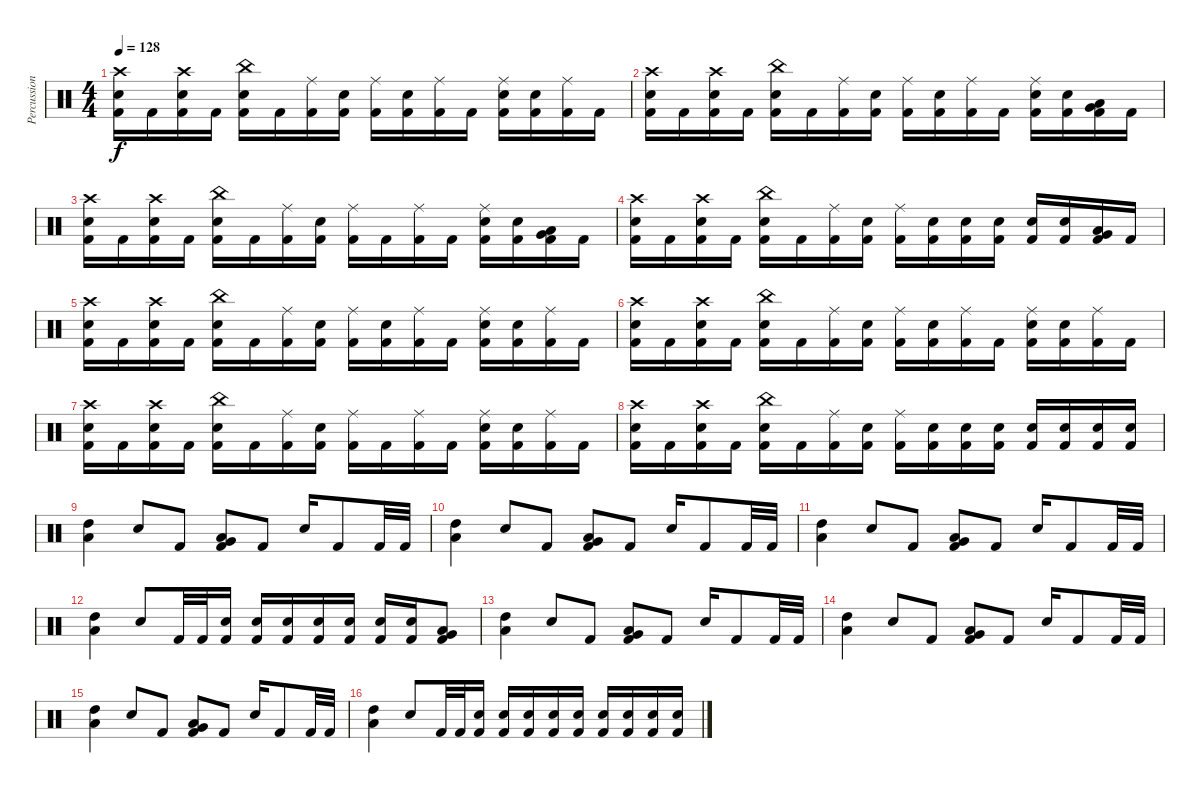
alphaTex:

\track ("Percussion" "Percussion") {instrument percussion}
\staff {score}
\articulation defaults
\ts (4 4)
\tempo 128
\clef neutral
\ks c
("Crash high (hit)" "Snare (hit) 2" "Kick (hit) 2").16{dy f} "Kick (hit) 2".16 ("Crash high (hit)" "Snare (hit) 2" "Kick (hit) 2").16 "Kick (hit) 2".16 ("China (hit)" "Snare (hit) 2" "Kick (hit) 2").16 "Kick (hit) 2".16 ("Ride (middle)" "Kick (hit) 2").16 ("Snare (hit) 2" "Kick (hit) 2").16 ("Ride (middle)" "Kick (hit) 2").16 ("Snare (hit) 2" "Kick (hit) 2").16 ("Ride (middle)" "Kick (hit) 2").16 "Kick (hit) 2".16 ("Ride (middle)" "Snare (hit) 2" "Kick (hit) 2").16 ("Snare (hit) 2" "Kick (hit) 2").16 ("Ride (middle)" "Kick (hit) 2").16 "Kick (hit) 2".16 |
("Crash high (hit)" "Snare (hit) 2" "Kick (hit) 2").16 "Kick (hit) 2".16 ("Crash high (hit)" "Snare (hit) 2" "Kick (hit) 2").16 "Kick (hit) 2".16 ("China (hit)" "Snare (hit) 2" "Kick (hit) 2").16 "Kick (hit) 2".16 ("Ride (middle)" "Kick (hit) 2").16 ("Snare (hit) 2" "Kick (hit) 2").16 ("Ride (middle)" "Kick (hit) 2").16 ("Snare (hit) 2" "Kick (hit) 2").16 ("Ride (middle)" "Kick (hit) 2").16 "Kick (hit) 2".16 ("Ride (middle)" "Snare (hit) 2" "Kick (hit) 2").16 ("Snare (hit) 2" "Kick (hit) 2").16 ("Very Low Tom (hit)" "Low Tom (hit)" "Kick (hit) 2").16 "Kick (hit) 2".16 |
("Crash high (hit)" "Snare (hit) 2" "Kick (hit) 2").16 "Kick (hit) 2".16 ("Crash high (hit)" "Snare (hit) 2" "Kick (hit) 2").16 "Kick (hit) 2".16 ("China (hit)" "Snare (hit) 2" "Kick (hit) 2").16 "Kick (hit) 2".16 ("Ride (middle)" "Kick (hit) 2").16 ("Snare (hit) 2" "Kick (hit) 2").16 ("Ride (middle)" "Kick (hit) 2").16 "Kick (hit) 2".16 ("Ride (middle)" "Kick (hit) 2").16 "Kick (hit) 2".16 ("Ride (middle)" "Snare (hit) 2" "Kick (hit) 2").16 ("Snare (hit) 2" "Kick (hit) 2").16 ("Very Low Tom (hit)" "Low Tom (hit)" "Kick (hit) 2").16 "Kick (hit) 2".16 |
("Crash high (hit)" "Snare (hit) 2" "Kick (hit) 2").16 "Kick (hit) 2".16 ("Crash high (hit)" "Snare (hit) 2" "Kick (hit) 2").16 "Kick (hit) 2".16 ("China (hit)" "Snare (hit) 2" "Kick (hit) 2").16 "Kick (hit) 2".16 ("Ride (middle)" "Kick (hit) 2").16 ("Snare (hit) 2" "Kick (hit) 2").16 ("Ride (middle)" "Kick (hit) 2").16 ("Snare (hit) 2" "Kick (hit) 2").16 ("Snare (hit) 2" "Kick (hit) 2").16 ("Snare (hit) 2" "Kick (hit) 2").16 ("Snare (hit) 2" "Kick (hit) 2").16 ("Snare (hit) 2" "Kick (hit) 2").16 ("Very Low Tom (hit)" "Low Tom (hit)" "Kick (hit) 2").16 "Kick (hit) 2".16 |
("Crash high (hit)" "Snare (hit) 2" "Kick (hit) 2").16 "Kick (hit) 2".16 ("Crash high (hit)" "Snare (hit) 2" "Kick (hit) 2").16 "Kick (hit) 2".16 ("China (hit)" "Snare (hit) 2" "Kick (hit) 2").16 "Kick (hit) 2".16 ("Ride (middle)" "Kick (hit) 2").16 ("Snare (hit) 2" "Kick (hit) 2").16 ("Ride (middle)" "Kick (hit) 2").16 ("Snare (hit) 2" "Kick (hit) 2").16 ("Ride (middle)" "Kick (hit) 2").16 "Kick (hit) 2".16 ("Ride (middle)" "Snare (hit) 2" "Kick (hit) 2").16 ("Snare (hit) 2" "Kick (hit) 2").16 ("Ride (middle)" "Kick (hit) 2").16 "Kick (hit) 2".16 |
("Crash high (hit)" "Snare (hit) 2" "Kick (hit) 2").16 "Kick (hit) 2".16 ("Crash high (hit)" "Snare (hit) 2" "Kick (hit) 2").16 "Kick (hit) 2".16 ("China (hit)" "Snare (hit) 2" "Kick (hit) 2").16 "Kick (hit) 2".16 ("Ride (middle)" "Kick (hit) 2").16 ("Snare (hit) 2" "Kick (hit) 2").16 ("Ride (middle)" "Kick (hit) 2").16 ("Snare (hit) 2" "Kick (hit) 2").16 ("Ride (middle)" "Kick (hit) 2").16 "Kick (hit) 2".16 ("Ride (middle)" "Snare (hit) 2" "Kick (hit) 2").16 ("Snare (hit) 2" "Kick (hit) 2").16 ("Ride (middle)" "Kick (hit) 2").16 "Kick (hit) 2".16 |
("Crash high (hit)" "Snare (hit) 2" "Kick (hit) 2").16 "Kick (hit) 2".16 ("Crash high (hit)" "Snare (hit) 2" "Kick (hit) 2").16 "Kick (hit) 2".16 ("China (hit)" "Snare (hit) 2" "Kick (hit) 2").16 "Kick (hit) 2".16 ("Ride (middle)" "Kick (hit) 2").16 ("Snare (hit) 2" "Kick (hit) 2").16 ("Ride (middle)" "Kick (hit) 2").16 "Kick (hit) 2".16 ("Ride (middle)" "Kick (hit) 2").16 "Kick (hit) 2".16 ("Ride (middle)" "Snare (hit) 2" "Kick (hit) 2").16 ("Snare (hit) 2" "Kick (hit) 2").16 ("Ride (middle)" "Kick (hit) 2").16 "Kick (hit) 2".16 |
("Crash high (hit)" "Snare (hit) 2" "Kick (hit) 2").16 "Kick (hit) 2".16 ("Crash high (hit)" "Snare (hit) 2" "Kick (hit) 2").16 "Kick (hit) 2".16 ("China (hit)" "Snare (hit) 2" "Kick (hit) 2").16 "Kick (hit) 2".16 ("Ride (middle)" "Kick (hit) 2").16 ("Snare (hit) 2" "Kick (hit) 2").16 ("Ride (middle)" "Kick (hit) 2").16 ("Snare (hit) 2" "Kick (hit) 2").16 ("Snare (hit) 2" "Kick (hit) 2").16 ("Snare (hit) 2" "Kick (hit) 2").16 ("Snare (hit) 2" "Kick (hit) 2").16 ("Snare (hit) 2" "Kick (hit) 2").16 ("Snare (hit) 2" "Kick (hit) 2").16 ("Snare (hit) 2" "Kick (hit) 2").16 |
("Low Tom (hit)" "High Tom (hit)").4 "Snare (hit) 2".8 "Kick (hit) 2".8 ("Low Tom (hit)" "Very Low Tom (hit)" "Kick (hit) 2").8 "Kick (hit) 2".8 "Snare (hit) 2".16 "Kick (hit) 2".8 "Kick (hit) 2".32 "Kick (hit) 2".32 |
("Low Tom (hit)" "High Tom (hit)").4 "Snare (hit) 2".8 "Kick (hit) 2".8 ("Low Tom (hit)" "Very Low Tom (hit)" "Kick (hit) 2").8 "Kick (hit) 2".8 "Snare (hit) 2".16 "Kick (hit) 2".8 "Kick (hit) 2".32 "Kick (hit) 2".32 |
("Low Tom (hit)" "High Tom (hit)").4 "Snare (hit) 2".8 "Kick (hit) 2".8 ("Low Tom (hit)" "Very Low Tom (hit)" "Kick (hit) 2").8 "Kick (hit) 2".8 "Snare (hit) 2".16 "Kick (hit) 2".8 "Kick (hit) 2".32 "Kick (hit) 2".32 |
("Low Tom (hit)" "High Tom (hit)").4 "Snare (hit) 2".8 "Kick (hit) 2".32 "Kick (hit) 2".32 ("Snare (hit) 2" "Kick (hit) 2").16 ("Snare (hit) 2" "Kick (hit) 2").16 ("Snare (hit) 2" "Kick (hit) 2").16 ("Snare (hit) 2" "Kick (hit) 2").16 ("Snare (hit) 2" "Kick (hit) 2").16 ("Snare (hit) 2" "Kick (hit) 2").16 ("Snare (hit) 2" "Kick (hit) 2").16 ("Very Low Tom (hit)" "Low Tom (hit)" "Kick (hit) 2").8 |
("Low Tom (hit)" "High Tom (hit)").4 "Snare (hit) 2".8 "Kick (hit) 2".8 ("Low Tom (hit)" "Very Low Tom (hit)" "Kick (hit) 2").8 "Kick (hit) 2".8 "Snare (hit) 2".16 "Kick (hit) 2".8 "Kick (hit) 2".32 "Kick (hit) 2".32 |
("Low Tom (hit)" "High Tom (hit)").4 "Snare (hit) 2".8 "Kick (hit) 2".8 ("Low Tom (hit)" "Very Low Tom (hit)" "Kick (hit) 2").8 "Kick (hit) 2".8 "Snare (hit) 2".16 "Kick (hit) 2".8 "Kick (hit) 2".32 "Kick (hit) 2".32 |
("Low Tom (hit)" "High Tom (hit)").4 "Snare (hit) 2".8 "Kick (hit) 2".8 ("Low Tom (hit)" "Very Low Tom (hit)" "Kick (hit) 2").8 "Kick (hit) 2".8 "Snare (hit) 2".16 "Kick (hit) 2".8 "Kick (hit) 2".32 "Kick (hit) 2".32 |
("Low Tom (hit)" "High Tom (hit)").4 "Snare (hit) 2".8 "Kick (hit) 2".32 "Kick (hit) 2".32 ("Snare (hit) 2" "Kick (hit) 2").16 ("Snare (hit) 2" "Kick (hit) 2").16 ("Snare (hit) 2" "Kick (hit) 2").16 ("Snare (hit) 2" "Kick (hit) 2").16 ("Snare (hit) 2" "Kick (hit) 2").16 ("Snare (hit) 2" "Kick (hit) 2").16 ("Snare (hit) 2" "Kick (hit) 2").16 ("Snare (hit) 2" "Kick (hit) 2").16 ("Snare (hit) 2" "Kick (hit) 2").16
